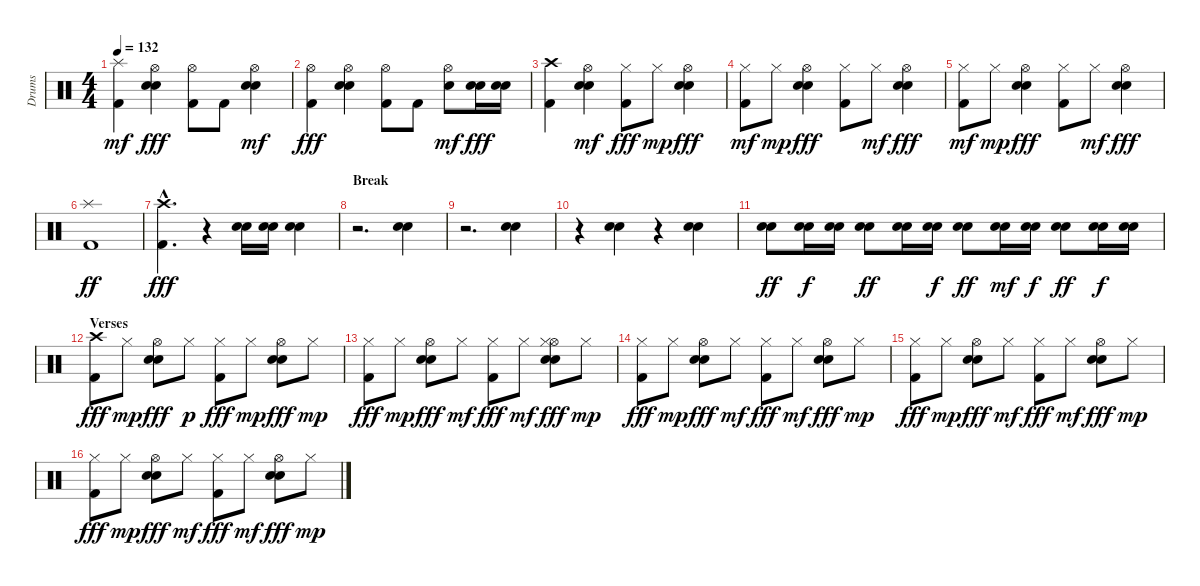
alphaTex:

\track ("Drums" "Drums") {instrument percussion}
\staff {score}
\articulation defaults
\ts (4 4)
\tempo 132
\clef neutral
\ks c
("Kick (hit) 2" "Splash (hit)").4{dy mf} ("Hi-Hat (open)" "Snare (hit) 2" "Electric Snare (hit)").4{dy fff} ("Hi-Hat (open)" "Kick (hit) 2").8 "Kick (hit) 2".8 ("Snare (hit) 2" "Hi-Hat (open)" "Electric Snare (hit)").4{dy mf} |
("Hi-Hat (open)" "Kick (hit) 2").4{dy fff} ("Hi-Hat (open)" "Snare (hit) 2" "Electric Snare (hit)").4 ("Hi-Hat (open)" "Kick (hit) 2").8 "Kick (hit) 2".8 ("Snare (hit) 2" "Hi-Hat (open)").8{dy mf} ("Snare (hit) 2" "Electric Snare (hit)").16{dy fff} ("Snare (hit) 2" "Electric Snare (hit)").16 |
("Kick (hit) 2" "Crash high (hit)").4 ("Snare (hit) 2" "Hi-Hat (open)" "Electric Snare (hit)").4{dy mf} ("Hi-Hat (closed)" "Kick (hit) 2").8{dy fff} "Hi-Hat (closed)".8{dy mp} ("Hi-Hat (open)" "Snare (hit) 2" "Electric Snare (hit)").4{dy fff} |
("Kick (hit) 2" "Hi-Hat (closed)").8{dy mf} "Hi-Hat (closed)".8{dy mp} ("Hi-Hat (open)" "Snare (hit) 2" "Electric Snare (hit)").4{dy fff} ("Kick (hit) 2" "Hi-Hat (closed)").8 "Hi-Hat (closed)".8{dy mf} ("Hi-Hat (open)" "Snare (hit) 2" "Electric Snare (hit)").4{dy fff} |
("Kick (hit) 2" "Hi-Hat (closed)").8{dy mf} "Hi-Hat (closed)".8{dy mp} ("Hi-Hat (open)" "Snare (hit) 2" "Electric Snare (hit)").4{dy fff} ("Kick (hit) 2" "Hi-Hat (closed)").8 "Hi-Hat (closed)".8{dy mf} ("Hi-Hat (open)" "Snare (hit) 2" "Electric Snare (hit)").4{dy fff} |
("Kick (hit) 2" "Splash (hit)").1{dy ff} |
("Crash high (hit)"{hac} "Kick (hit) 2"{hac}).4{d dy fff} r.4 ("Snare (hit) 2" "Electric Snare (hit)").16 ("Snare (hit) 2" "Electric Snare (hit)").16 ("Snare (hit) 2" "Electric Snare (hit)").4 |
\section ("" "Break")
r.2{d} ("Snare (hit) 2" "Electric Snare (hit)").4 |
r.2{d} ("Snare (hit) 2" "Electric Snare (hit)").4 |
r.4 ("Snare (hit) 2" "Electric Snare (hit)").4 r.4 ("Snare (hit) 2" "Electric Snare (hit)").4 |
("Snare (hit) 2" "Electric Snare (hit)").8{dy ff} ("Snare (hit) 2" "Electric Snare (hit)").16{dy f} ("Snare (hit) 2" "Electric Snare (hit)").16 ("Snare (hit) 2" "Electric Snare (hit)").8{dy ff} ("Snare (hit) 2" "Electric Snare (hit)").16 ("Snare (hit) 2" "Electric Snare (hit)").16{dy f} ("Snare (hit) 2" "Electric Snare (hit)").8{dy ff} ("Snare (hit) 2" "Electric Snare (hit)").16{dy mf} ("Snare (hit) 2" "Electric Snare (hit)").16{dy f} ("Snare (hit) 2" "Electric Snare (hit)").8{dy ff} ("Snare (hit) 2" "Electric Snare (hit)").16{dy f} ("Snare (hit) 2" "Electric Snare (hit)").16 |
\section ("" "Verses")
("Kick (hit) 2" "Crash high (hit)").8{dy fff} "Hi-Hat (closed)".8{dy mp} ("Hi-Hat (open)" "Snare (hit) 2" "Electric Snare (hit)").8{dy fff} "Hi-Hat (closed)".8{dy p} ("Hi-Hat (closed)" "Kick (hit) 2").8{dy fff} "Hi-Hat (closed)".8{dy mp} ("Hi-Hat (open)" "Snare (hit) 2" "Electric Snare (hit)").8{dy fff} "Hi-Hat (closed)".8{dy mp} |
("Kick (hit) 2" "Hi-Hat (closed)").8{dy fff} "Hi-Hat (closed)".8{dy mp} ("Hi-Hat (open)" "Snare (hit) 2" "Electric Snare (hit)").8{dy fff} "Hi-Hat (closed)".8{dy mf} ("Hi-Hat (closed)" "Kick (hit) 2").8{dy fff} "Hi-Hat (closed)".8{dy mf} ("Hi-Hat (open)" "Snare (hit) 2" "Electric Snare (hit)" "Hi-Hat (closed)").8{dy fff} "Hi-Hat (closed)".8{dy mp} |
("Kick (hit) 2" "Hi-Hat (closed)").8{dy fff} "Hi-Hat (closed)".8{dy mp} ("Hi-Hat (open)" "Snare (hit) 2" "Electric Snare (hit)").8{dy fff} "Hi-Hat (closed)".8{dy mf} ("Hi-Hat (closed)" "Kick (hit) 2").8{dy fff} "Hi-Hat (closed)".8{dy mf} ("Hi-Hat (open)" "Snare (hit) 2" "Electric Snare (hit)").8{dy fff} "Hi-Hat (closed)".8{dy mp} |
("Kick (hit) 2" "Hi-Hat (closed)").8{dy fff} "Hi-Hat (closed)".8{dy mp} ("Hi-Hat (open)" "Snare (hit) 2" "Electric Snare (hit)").8{dy fff} "Hi-Hat (closed)".8{dy mf} ("Hi-Hat (closed)" "Kick (hit) 2").8{dy fff} "Hi-Hat (closed)".8{dy mf} ("Hi-Hat (open)" "Snare (hit) 2" "Electric Snare (hit)").8{dy fff} "Hi-Hat (closed)".8{dy mp} |
("Kick (hit) 2" "Hi-Hat (closed)").8{dy fff} "Hi-Hat (closed)".8{dy mp} ("Hi-Hat (open)" "Snare (hit) 2" "Electric Snare (hit)").8{dy fff} "Hi-Hat (closed)".8{dy mf} ("Hi-Hat (closed)" "Kick (hit) 2").8{dy fff} "Hi-Hat (closed)".8{dy mf} ("Hi-Hat (open)" "Snare (hit) 2" "Electric Snare (hit)").8{dy fff} "Hi-Hat (closed)".8{dy mp}
